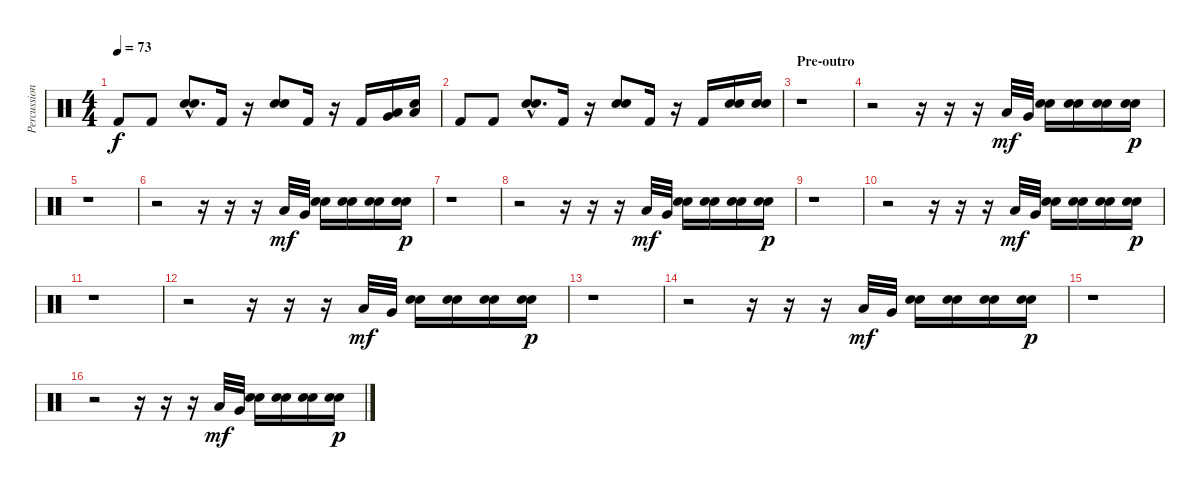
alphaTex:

\track ("Percussions" "Percussion") {instrument percussion}
\staff {score}
\articulation defaults
\ts (4 4)
\tempo 73
\clef neutral
\ks c "Kick (hit) 2".8{dy f} "Kick (hit) 2".8
("Electric Snare (hit)"{hac} "Snare (hit) 2"{hac}).8{d} "Kick (hit) 2".16 r.16 ("Electric Snare (hit)" "Snare (hit) 2").8 "Kick (hit) 2".16 r.16 "Kick (hit) 2".16 ("Very Low Tom (hit)" "Low Floor Tom (hit)").16 ("Electric Snare (hit)" "Low Tom (hit)").16 |
"Kick (hit) 2".8 "Kick (hit) 2".8 ("Electric Snare (hit)"{hac} "Snare (hit) 2"{hac}).8{d} "Kick (hit) 2".16 r.16 ("Electric Snare (hit)" "Snare (hit) 2").8 "Kick (hit) 2".16 r.16 "Kick (hit) 2".16 ("Electric Snare (hit)" "Snare (hit) 2").16 ("Electric Snare (hit)" "Snare (hit) 2").16 |
\section ("" "Pre-outro")
r.1 |
r.2 r.16 r.16 r.16 "Low Floor Tom (hit)".32{dy mf} "Very Low Tom (hit)".32 ("Electric Snare (hit)" "Snare (hit) 2").16 ("Electric Snare (hit)" "Snare (hit) 2").16 ("Electric Snare (hit)" "Snare (hit) 2").16 ("Electric Snare (hit)" "Snare (hit) 2").16{dy p} |
r.1 |
r.2 r.16 r.16 r.16 "Low Floor Tom (hit)".32{dy mf} "Very Low Tom (hit)".32 ("Electric Snare (hit)" "Snare (hit) 2").16 ("Electric Snare (hit)" "Snare (hit) 2").16 ("Electric Snare (hit)" "Snare (hit) 2").16 ("Electric Snare (hit)" "Snare (hit) 2").16{dy p} |
r.1 |
r.2 r.16 r.16 r.16 "Low Floor Tom (hit)".32{dy mf} "Very Low Tom (hit)".32 ("Electric Snare (hit)" "Snare (hit) 2").16 ("Electric Snare (hit)" "Snare (hit) 2").16 ("Electric Snare (hit)" "Snare (hit) 2").16 ("Electric Snare (hit)" "Snare (hit) 2").16{dy p} |
r.1 |
r.2 r.16 r.16 r.16 "Low Floor Tom (hit)".32{dy mf} "Very Low Tom (hit)".32 ("Electric Snare (hit)" "Snare (hit) 2").16 ("Electric Snare (hit)" "Snare (hit) 2").16 ("Electric Snare (hit)" "Snare (hit) 2").16 ("Electric Snare (hit)" "Snare (hit) 2").16{dy p} |
r.1 |
r.2 r.16 r.16 r.16 "Low Floor Tom (hit)".32{dy mf} "Very Low Tom (hit)".32 ("Electric Snare (hit)" "Snare (hit) 2").16 ("Electric Snare (hit)" "Snare (hit) 2").16 ("Electric Snare (hit)" "Snare (hit) 2").16 ("Electric Snare (hit)" "Snare (hit) 2").16{dy p} |
r.1 |
r.2 r.16 r.16 r.16 "Low Floor Tom (hit)".32{dy mf} "Very Low Tom (hit)".32 ("Electric Snare (hit)" "Snare (hit) 2").16 ("Electric Snare (hit)" "Snare (hit) 2").16 ("Electric Snare (hit)" "Snare (hit) 2").16 ("Electric Snare (hit)" "Snare (hit) 2").16{dy p} |
r.1 |
r.2 r.16 r.16 r.16 "Low Floor Tom (hit)".32{dy mf} "Very Low Tom (hit)".32 ("Electric Snare (hit)" "Snare (hit) 2").16 ("Electric Snare (hit)" "Snare (hit) 2").16 ("Electric Snare (hit)" "Snare (hit) 2").16 ("Electric Snare (hit)" "Snare (hit) 2").16{dy p}
